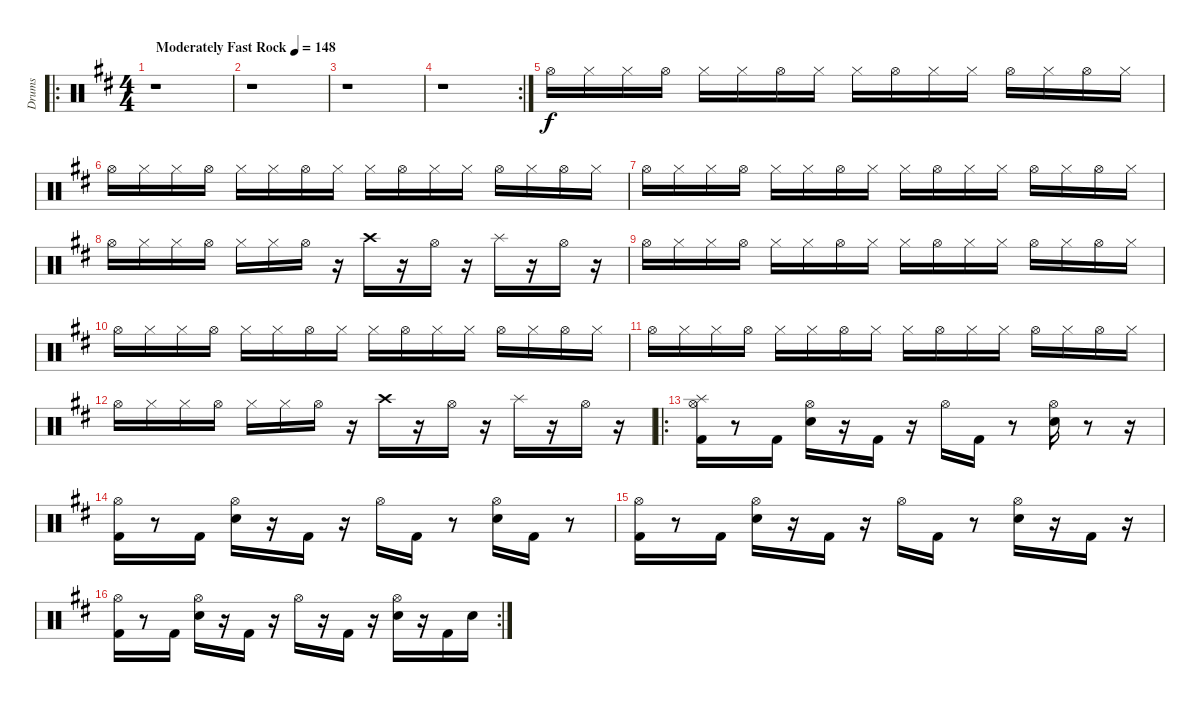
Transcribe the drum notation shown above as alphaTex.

\track ("Drums" "Drums") {instrument percussion}
\staff {score}
\articulation defaults
\ro
\ts (4 4)
\tempo (148 "Moderately Fast Rock")
\clef neutral
\ks d
r.1{dy f} |
r.1 |
r.1 |
\rc 2
r.1 |
"Hi-Hat (open)".16 "Hi-Hat (closed)".16 "Hi-Hat (closed)".16 "Hi-Hat (open)".16 "Hi-Hat (closed)".16 "Hi-Hat (closed)".16 "Hi-Hat (open)".16 "Hi-Hat (closed)".16 "Hi-Hat (closed)".16 "Hi-Hat (open)".16 "Hi-Hat (closed)".16 "Hi-Hat (closed)".16 "Hi-Hat (open)".16 "Hi-Hat (closed)".16 "Hi-Hat (open)".16 "Hi-Hat (closed)".16 |
"Hi-Hat (open)".16 "Hi-Hat (closed)".16 "Hi-Hat (closed)".16 "Hi-Hat (open)".16 "Hi-Hat (closed)".16 "Hi-Hat (closed)".16 "Hi-Hat (open)".16 "Hi-Hat (closed)".16 "Hi-Hat (closed)".16 "Hi-Hat (open)".16 "Hi-Hat (closed)".16 "Hi-Hat (closed)".16 "Hi-Hat (open)".16 "Hi-Hat (closed)".16 "Hi-Hat (open)".16 "Hi-Hat (closed)".16 |
"Hi-Hat (open)".16 "Hi-Hat (closed)".16 "Hi-Hat (closed)".16 "Hi-Hat (open)".16 "Hi-Hat (closed)".16 "Hi-Hat (closed)".16 "Hi-Hat (open)".16 "Hi-Hat (closed)".16 "Hi-Hat (closed)".16 "Hi-Hat (open)".16 "Hi-Hat (closed)".16 "Hi-Hat (closed)".16 "Hi-Hat (open)".16 "Hi-Hat (closed)".16 "Hi-Hat (open)".16 "Hi-Hat (closed)".16 |
"Hi-Hat (open)".16 "Hi-Hat (closed)".16 "Hi-Hat (closed)".16 "Hi-Hat (open)".16 "Hi-Hat (closed)".16 "Hi-Hat (closed)".16 "Hi-Hat (open)".16 r.16 "Crash high (hit)".16 r.16 "Hi-Hat (open)".16 r.16 "Splash (hit)".16 r.16 "Hi-Hat (open)".16 r.16 |
"Hi-Hat (open)".16 "Hi-Hat (closed)".16 "Hi-Hat (closed)".16 "Hi-Hat (open)".16 "Hi-Hat (closed)".16 "Hi-Hat (closed)".16 "Hi-Hat (open)".16 "Hi-Hat (closed)".16 "Hi-Hat (closed)".16 "Hi-Hat (open)".16 "Hi-Hat (closed)".16 "Hi-Hat (closed)".16 "Hi-Hat (open)".16 "Hi-Hat (closed)".16 "Hi-Hat (open)".16 "Hi-Hat (closed)".16 |
"Hi-Hat (open)".16 "Hi-Hat (closed)".16 "Hi-Hat (closed)".16 "Hi-Hat (open)".16 "Hi-Hat (closed)".16 "Hi-Hat (closed)".16 "Hi-Hat (open)".16 "Hi-Hat (closed)".16 "Hi-Hat (closed)".16 "Hi-Hat (open)".16 "Hi-Hat (closed)".16 "Hi-Hat (closed)".16 "Hi-Hat (open)".16 "Hi-Hat (closed)".16 "Hi-Hat (open)".16 "Hi-Hat (closed)".16 |
"Hi-Hat (open)".16 "Hi-Hat (closed)".16 "Hi-Hat (closed)".16 "Hi-Hat (open)".16 "Hi-Hat (closed)".16 "Hi-Hat (closed)".16 "Hi-Hat (open)".16 "Hi-Hat (closed)".16 "Hi-Hat (closed)".16 "Hi-Hat (open)".16 "Hi-Hat (closed)".16 "Hi-Hat (closed)".16 "Hi-Hat (open)".16 "Hi-Hat (closed)".16 "Hi-Hat (open)".16 "Hi-Hat (closed)".16 |
"Hi-Hat (open)".16 "Hi-Hat (closed)".16 "Hi-Hat (closed)".16 "Hi-Hat (open)".16 "Hi-Hat (closed)".16 "Hi-Hat (closed)".16 "Hi-Hat (open)".16 r.16 "Crash high (hit)".16 r.16 "Hi-Hat (open)".16 r.16 "Splash (hit)".16 r.16 "Hi-Hat (open)".16 r.16 |
\ro
("Splash (hit)" "Hi-Hat (open)" "Kick (hit) 2").16 r.8 "Kick (hit) 2".16 ("Hi-Hat (open)" "Snare (hit) 2").16 r.16 "Kick (hit) 2".16 r.16 "Hi-Hat (open)".16 "Kick (hit) 2".16 r.8 ("Hi-Hat (open)" "Snare (hit) 2").16 r.8 r.16 |
("Hi-Hat (open)" "Kick (hit) 2").16 r.8 "Kick (hit) 2".16 ("Hi-Hat (open)" "Snare (hit) 2").16 r.16 "Kick (hit) 2".16 r.16 "Hi-Hat (open)".16 "Kick (hit) 2".16 r.8 ("Hi-Hat (open)" "Snare (hit) 2").16 "Kick (hit) 2".16 r.8 |
("Hi-Hat (open)" "Kick (hit) 2").16 r.8 "Kick (hit) 2".16 ("Hi-Hat (open)" "Snare (hit) 2").16 r.16 "Kick (hit) 2".16 r.16 "Hi-Hat (open)".16 "Kick (hit) 2".16 r.8 ("Hi-Hat (open)" "Snare (hit) 2").16 r.16 "Kick (hit) 2".16 r.16 |
\rc 2
("Hi-Hat (open)" "Kick (hit) 2").16 r.8 "Kick (hit) 2".16 ("Hi-Hat (open)" "Snare (hit) 2").16 r.16 "Kick (hit) 2".16 r.16 "Hi-Hat (open)".16 r.16 "Kick (hit) 2".16 r.16 ("Hi-Hat (open)" "Snare (hit) 2").16 r.16 "Kick (hit) 2".16 "Snare (hit) 2".16
